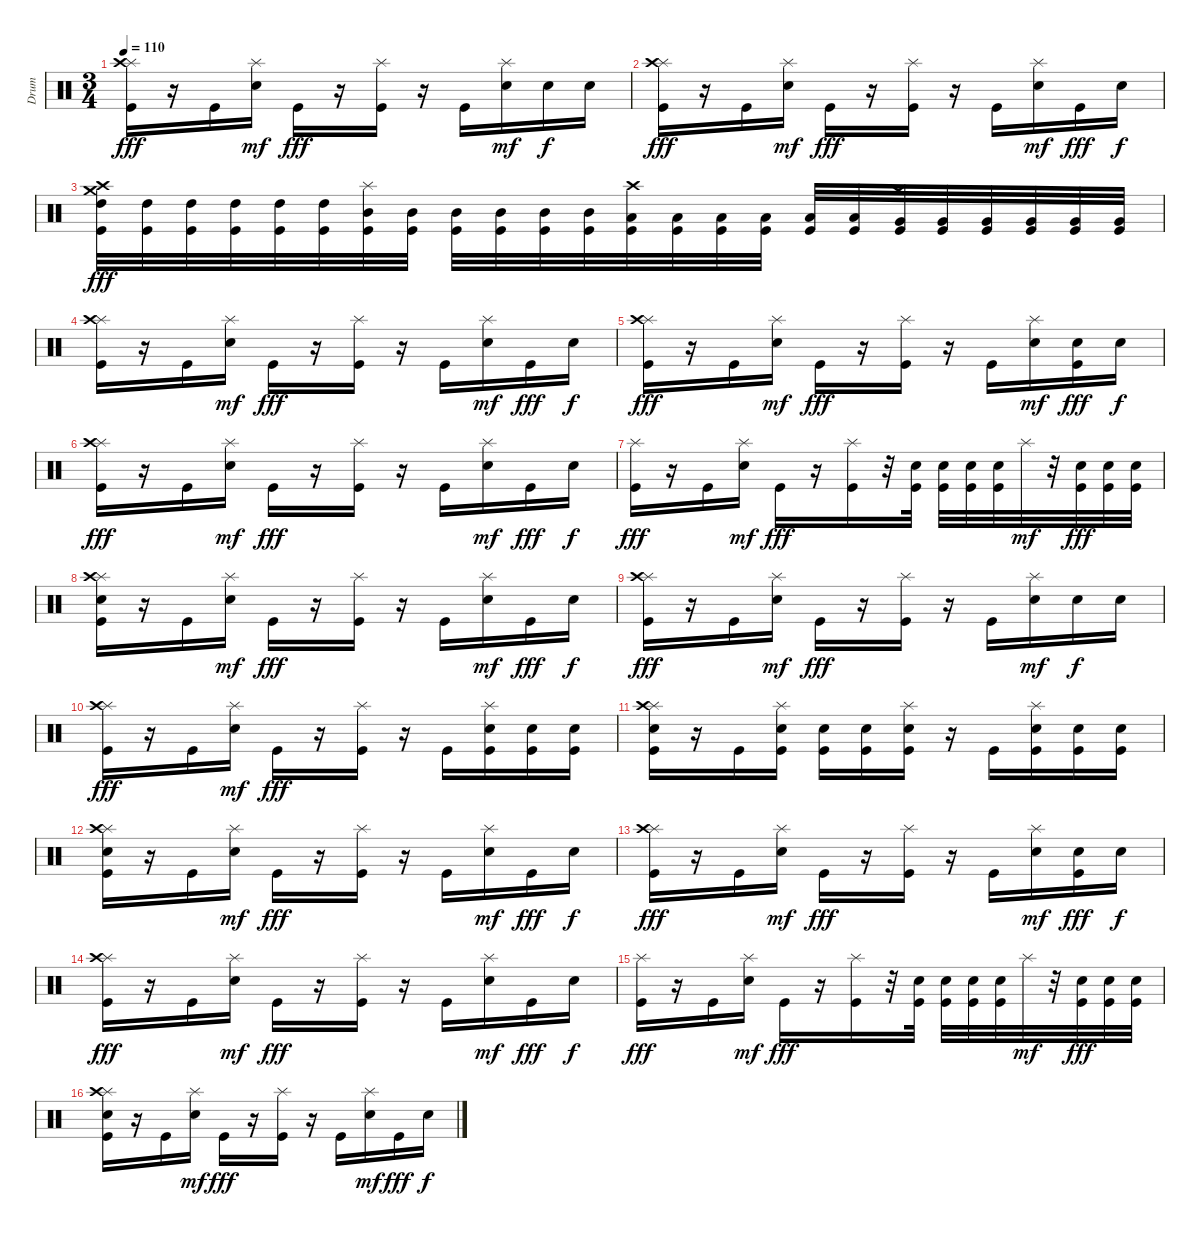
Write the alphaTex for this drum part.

\track ("Drum" "Drum") {instrument percussion}
\staff {score}
\articulation defaults
\ts (3 4)
\tempo 110
\clef neutral
\ks c
("Splash (hit)" "Crash high (hit)" "Kick (hit)").16{dy fff} r.16 "Kick (hit)".16 ("Splash (hit)" "Electric Snare (hit)").16{dy mf} "Kick (hit)".16{dy fff} r.16 ("Splash (hit)" "Kick (hit)").16 r.16 "Kick (hit)".16 ("Splash (hit)" "Electric Snare (hit)").16{dy mf} "Electric Snare (hit)".16{dy f} "Electric Snare (hit)".16 |
("Splash (hit)" "Crash high (hit)" "Kick (hit)").16{dy fff} r.16 "Kick (hit)".16 ("Splash (hit)" "Electric Snare (hit)").16{dy mf} "Kick (hit)".16{dy fff} r.16 ("Splash (hit)" "Kick (hit)").16 r.16 "Kick (hit)".16 ("Splash (hit)" "Electric Snare (hit)").16{dy mf} "Kick (hit)".16{dy fff} "Electric Snare (hit)".16{dy f} |
("Crash medium (hit)" "Crash high (hit)" "High Tom (hit)" "Kick (hit)").32{dy fff} ("High Tom (hit)" "Kick (hit)").32 ("High Tom (hit)" "Kick (hit)").32 ("High Tom (hit)" "Kick (hit)").32 ("High Tom (hit)" "Kick (hit)").32 ("High Tom (hit)" "Kick (hit)").32 ("Splash (hit)" "Mid Tom (hit)" "Kick (hit)").32 ("Mid Tom (hit)" "Kick (hit)").32 ("Mid Tom (hit)" "Kick (hit)").32 ("Mid Tom (hit)" "Kick (hit)").32 ("Mid Tom (hit)" "Kick (hit)").32 ("Mid Tom (hit)" "Kick (hit)").32 ("Crash high (hit)" "Low Tom (hit)" "Kick (hit)").32 ("Low Tom (hit)" "Kick (hit)").32 ("Low Tom (hit)" "Kick (hit)").32 ("Low Tom (hit)" "Kick (hit)").32 ("Low Tom (hit)" "Kick (hit)").32 ("Low Tom (hit)" "Kick (hit)").32 ("Crash medium (hit)" "Very Low Tom (hit)" "Kick (hit)").32 ("Very Low Tom (hit)" "Kick (hit)").32 ("Very Low Tom (hit)" "Kick (hit)").32 ("Very Low Tom (hit)" "Kick (hit)").32 ("Very Low Tom (hit)" "Kick (hit)").32 ("Very Low Tom (hit)" "Kick (hit)").32 |
("Splash (hit)" "Crash high (hit)" "Kick (hit)").16 r.16 "Kick (hit)".16 ("Splash (hit)" "Electric Snare (hit)").16{dy mf} "Kick (hit)".16{dy fff} r.16 ("Splash (hit)" "Kick (hit)").16 r.16 "Kick (hit)".16 ("Splash (hit)" "Electric Snare (hit)").16{dy mf} "Kick (hit)".16{dy fff} "Electric Snare (hit)".16{dy f} |
("Splash (hit)" "Crash high (hit)" "Kick (hit)").16{dy fff} r.16 "Kick (hit)".16 ("Splash (hit)" "Electric Snare (hit)").16{dy mf} "Kick (hit)".16{dy fff} r.16 ("Splash (hit)" "Kick (hit)").16 r.16 "Kick (hit)".16 ("Splash (hit)" "Electric Snare (hit)").16{dy mf} ("Electric Snare (hit)" "Kick (hit)").16{dy fff} "Electric Snare (hit)".16{dy f} |
("Splash (hit)" "Crash high (hit)" "Kick (hit)").16{dy fff} r.16 "Kick (hit)".16 ("Splash (hit)" "Electric Snare (hit)").16{dy mf} "Kick (hit)".16{dy fff} r.16 ("Splash (hit)" "Kick (hit)").16 r.16 "Kick (hit)".16 ("Splash (hit)" "Electric Snare (hit)").16{dy mf} "Kick (hit)".16{dy fff} "Electric Snare (hit)".16{dy f} |
("Splash (hit)" "Kick (hit)").16{dy fff} r.16 "Kick (hit)".16 ("Splash (hit)" "Electric Snare (hit)").16{dy mf} "Kick (hit)".16{dy fff} r.16 ("Splash (hit)" "Kick (hit)").16 r.32 ("Electric Snare (hit)" "Kick (hit)").32 ("Electric Snare (hit)" "Kick (hit)").32 ("Electric Snare (hit)" "Kick (hit)").32 ("Electric Snare (hit)" "Kick (hit)").32 "Splash (hit)".32{dy mf} r.32 ("Electric Snare (hit)" "Kick (hit)").32{dy fff} ("Electric Snare (hit)" "Kick (hit)").32 ("Electric Snare (hit)" "Kick (hit)").32 |
("Splash (hit)" "Crash high (hit)" "Electric Snare (hit)" "Kick (hit)").16 r.16 "Kick (hit)".16 ("Splash (hit)" "Electric Snare (hit)").16{dy mf} "Kick (hit)".16{dy fff} r.16 ("Splash (hit)" "Kick (hit)").16 r.16 "Kick (hit)".16 ("Splash (hit)" "Electric Snare (hit)").16{dy mf} "Kick (hit)".16{dy fff} "Electric Snare (hit)".16{dy f} |
("Splash (hit)" "Crash high (hit)" "Kick (hit)").16{dy fff} r.16 "Kick (hit)".16 ("Splash (hit)" "Electric Snare (hit)").16{dy mf} "Kick (hit)".16{dy fff} r.16 ("Splash (hit)" "Kick (hit)").16 r.16 "Kick (hit)".16 ("Splash (hit)" "Electric Snare (hit)").16{dy mf} "Electric Snare (hit)".16{dy f} "Electric Snare (hit)".16 |
("Splash (hit)" "Crash high (hit)" "Kick (hit)").16{dy fff} r.16 "Kick (hit)".16 ("Splash (hit)" "Electric Snare (hit)").16{dy mf} "Kick (hit)".16{dy fff} r.16 ("Splash (hit)" "Kick (hit)").16 r.16 "Kick (hit)".16 ("Splash (hit)" "Electric Snare (hit)" "Kick (hit)").16 ("Electric Snare (hit)" "Kick (hit)").16 ("Electric Snare (hit)" "Kick (hit)").16 |
("Splash (hit)" "Crash high (hit)" "Electric Snare (hit)" "Kick (hit)").16 r.16 "Kick (hit)".16 ("Splash (hit)" "Electric Snare (hit)" "Kick (hit)").16 ("Electric Snare (hit)" "Kick (hit)").16 ("Electric Snare (hit)" "Kick (hit)").16 ("Splash (hit)" "Electric Snare (hit)" "Kick (hit)").16 r.16 "Kick (hit)".16 ("Splash (hit)" "Electric Snare (hit)" "Kick (hit)").16 ("Electric Snare (hit)" "Kick (hit)").16 ("Electric Snare (hit)" "Kick (hit)").16 |
("Splash (hit)" "Crash high (hit)" "Electric Snare (hit)" "Kick (hit)").16 r.16 "Kick (hit)".16 ("Splash (hit)" "Electric Snare (hit)").16{dy mf} "Kick (hit)".16{dy fff} r.16 ("Splash (hit)" "Kick (hit)").16 r.16 "Kick (hit)".16 ("Splash (hit)" "Electric Snare (hit)").16{dy mf} "Kick (hit)".16{dy fff} "Electric Snare (hit)".16{dy f} |
("Splash (hit)" "Crash high (hit)" "Kick (hit)").16{dy fff} r.16 "Kick (hit)".16 ("Splash (hit)" "Electric Snare (hit)").16{dy mf} "Kick (hit)".16{dy fff} r.16 ("Splash (hit)" "Kick (hit)").16 r.16 "Kick (hit)".16 ("Splash (hit)" "Electric Snare (hit)").16{dy mf} ("Electric Snare (hit)" "Kick (hit)").16{dy fff} "Electric Snare (hit)".16{dy f} |
("Splash (hit)" "Crash high (hit)" "Kick (hit)").16{dy fff} r.16 "Kick (hit)".16 ("Splash (hit)" "Electric Snare (hit)").16{dy mf} "Kick (hit)".16{dy fff} r.16 ("Splash (hit)" "Kick (hit)").16 r.16 "Kick (hit)".16 ("Splash (hit)" "Electric Snare (hit)").16{dy mf} "Kick (hit)".16{dy fff} "Electric Snare (hit)".16{dy f} |
("Splash (hit)" "Kick (hit)").16{dy fff} r.16 "Kick (hit)".16 ("Splash (hit)" "Electric Snare (hit)").16{dy mf} "Kick (hit)".16{dy fff} r.16 ("Splash (hit)" "Kick (hit)").16 r.32 ("Electric Snare (hit)" "Kick (hit)").32 ("Electric Snare (hit)" "Kick (hit)").32 ("Electric Snare (hit)" "Kick (hit)").32 ("Electric Snare (hit)" "Kick (hit)").32 "Splash (hit)".32{dy mf} r.32 ("Electric Snare (hit)" "Kick (hit)").32{dy fff} ("Electric Snare (hit)" "Kick (hit)").32 ("Electric Snare (hit)" "Kick (hit)").32 |
("Splash (hit)" "Crash high (hit)" "Electric Snare (hit)" "Kick (hit)").16 r.16 "Kick (hit)".16 ("Splash (hit)" "Electric Snare (hit)").16{dy mf} "Kick (hit)".16{dy fff} r.16 ("Splash (hit)" "Kick (hit)").16 r.16 "Kick (hit)".16 ("Splash (hit)" "Electric Snare (hit)").16{dy mf} "Kick (hit)".16{dy fff} "Electric Snare (hit)".16{dy f}
